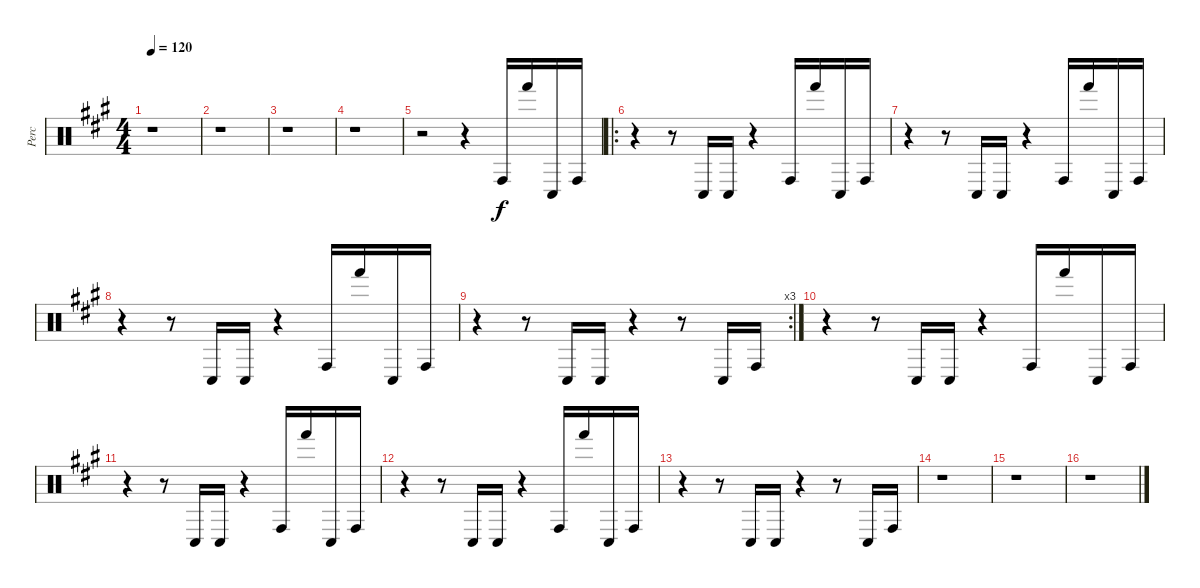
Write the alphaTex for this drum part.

\track ("Perc" "Perc") {instrument percussion}
\staff {score}
\articulation defaults
\ts (4 4)
\tempo 120
\clef neutral
\ks a
r.1{dy f} |
r.1 |
r.1 |
r.1 |
r.2 r.4 "Conga high (hit)".16 "Hand (hit)".16 "Conga low (hit)".16 "Conga high (hit)".16 |
\ro
r.4 r.8 "Conga low (hit)".16 "Conga low (hit)".16 r.4 "Conga high (hit)".16 "Hand (hit)".16 "Conga low (hit)".16 "Conga high (hit)".16 |
r.4 r.8 "Conga low (hit)".16 "Conga low (hit)".16 r.4 "Conga high (hit)".16 "Hand (hit)".16 "Conga low (hit)".16 "Conga high (hit)".16 |
r.4 r.8 "Conga low (hit)".16 "Conga low (hit)".16 r.4 "Conga high (hit)".16 "Hand (hit)".16 "Conga low (hit)".16 "Conga high (hit)".16 |
\rc 3
r.4 r.8 "Conga low (hit)".16 "Conga low (hit)".16 r.4 r.8 "Conga low (hit)".16 "Conga high (hit)".16 |
r.4 r.8 "Conga low (hit)".16 "Conga low (hit)".16 r.4 "Conga high (hit)".16 "Hand (hit)".16 "Conga low (hit)".16 "Conga high (hit)".16 |
r.4 r.8 "Conga low (hit)".16 "Conga low (hit)".16 r.4 "Conga high (hit)".16 "Hand (hit)".16 "Conga low (hit)".16 "Conga high (hit)".16 |
r.4 r.8 "Conga low (hit)".16 "Conga low (hit)".16 r.4 "Conga high (hit)".16 "Hand (hit)".16 "Conga low (hit)".16 "Conga high (hit)".16 |
r.4 r.8 "Conga low (hit)".16 "Conga low (hit)".16 r.4 r.8 "Conga low (hit)".16 "Conga high (hit)".16 |
r.1 |
r.1 |
r.1
